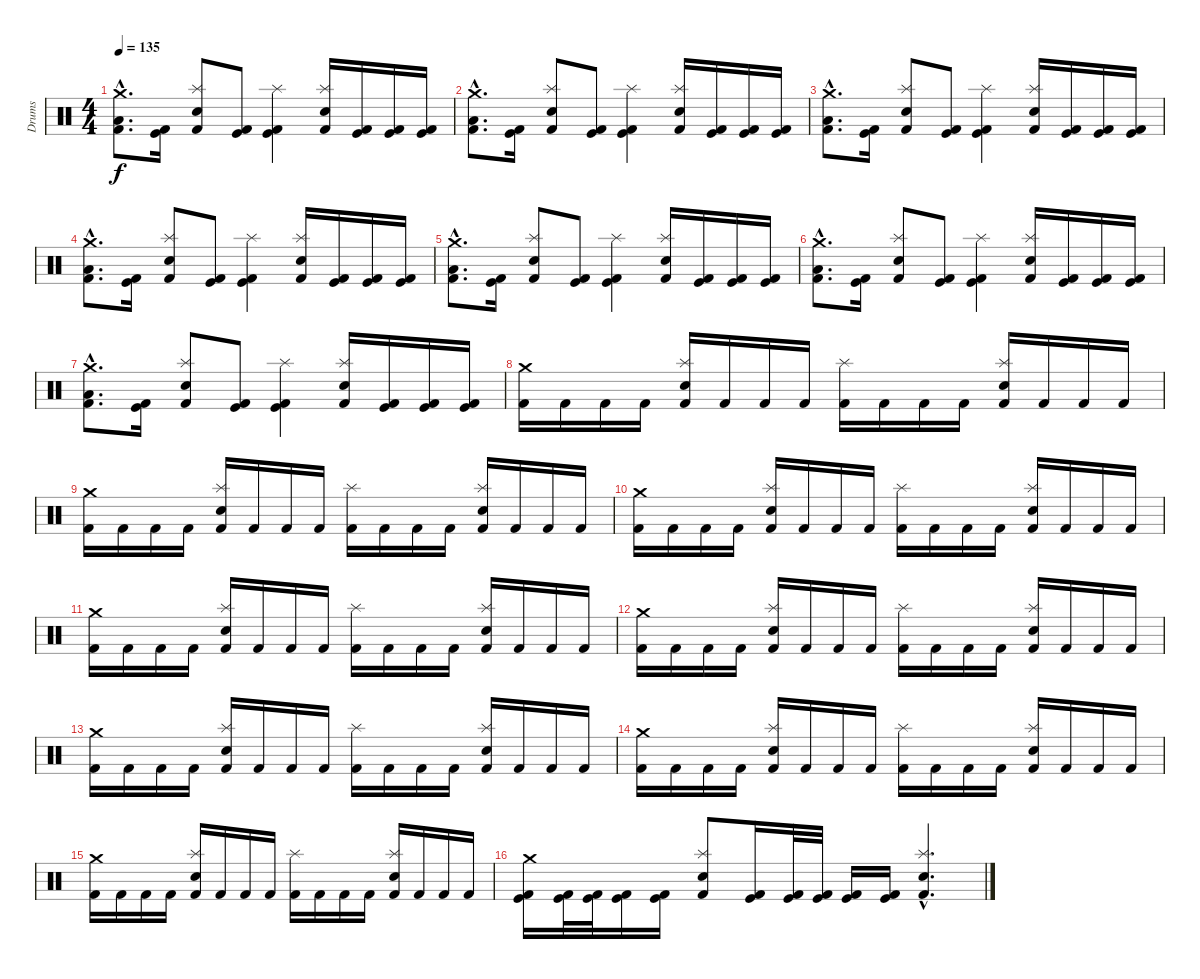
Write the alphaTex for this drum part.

\track ("Drums" "Drums") {instrument percussion}
\staff {score}
\articulation defaults
\ts (4 4)
\tempo 135
\clef neutral
\ks c
("Crash medium (hit)"{hac} "Low Floor Tom (hit)"{hac} "Kick (hit) 2"{hac}).8{d dy f} ("Kick (hit)" "Kick (hit) 2").16 ("Splash (hit)" "Snare (hit) 2" "Kick (hit) 2").8 ("Kick (hit)" "Kick (hit) 2").8 ("Splash (hit)" "Kick (hit)" "Kick (hit) 2").4 ("Splash (hit)" "Snare (hit) 2" "Kick (hit) 2").16 ("Kick (hit)" "Kick (hit) 2").16 ("Kick (hit)" "Kick (hit) 2").16 ("Kick (hit)" "Kick (hit) 2").16 |
("Crash medium (hit)"{hac} "Low Floor Tom (hit)"{hac} "Kick (hit) 2"{hac}).8{d} ("Kick (hit)" "Kick (hit) 2").16 ("Splash (hit)" "Snare (hit) 2" "Kick (hit) 2").8 ("Kick (hit)" "Kick (hit) 2").8 ("Splash (hit)" "Kick (hit)" "Kick (hit) 2").4 ("Splash (hit)" "Snare (hit) 2" "Kick (hit) 2").16 ("Kick (hit)" "Kick (hit) 2").16 ("Kick (hit)" "Kick (hit) 2").16 ("Kick (hit)" "Kick (hit) 2").16 |
("Crash medium (hit)"{hac} "Low Floor Tom (hit)"{hac} "Kick (hit) 2"{hac}).8{d} ("Kick (hit)" "Kick (hit) 2").16 ("Splash (hit)" "Snare (hit) 2" "Kick (hit) 2").8 ("Kick (hit)" "Kick (hit) 2").8 ("Splash (hit)" "Kick (hit)" "Kick (hit) 2").4 ("Splash (hit)" "Snare (hit) 2" "Kick (hit) 2").16 ("Kick (hit)" "Kick (hit) 2").16 ("Kick (hit)" "Kick (hit) 2").16 ("Kick (hit)" "Kick (hit) 2").16 |
("Crash medium (hit)"{hac} "Low Floor Tom (hit)"{hac} "Kick (hit) 2"{hac}).8{d} ("Kick (hit)" "Kick (hit) 2").16 ("Splash (hit)" "Snare (hit) 2" "Kick (hit) 2").8 ("Kick (hit)" "Kick (hit) 2").8 ("Splash (hit)" "Kick (hit)" "Kick (hit) 2").4 ("Splash (hit)" "Snare (hit) 2" "Kick (hit) 2").16 ("Kick (hit)" "Kick (hit) 2").16 ("Kick (hit)" "Kick (hit) 2").16 ("Kick (hit)" "Kick (hit) 2").16 |
("Crash medium (hit)"{hac} "Low Floor Tom (hit)"{hac} "Kick (hit) 2"{hac}).8{d} ("Kick (hit)" "Kick (hit) 2").16 ("Splash (hit)" "Snare (hit) 2" "Kick (hit) 2").8 ("Kick (hit)" "Kick (hit) 2").8 ("Splash (hit)" "Kick (hit)" "Kick (hit) 2").4 ("Splash (hit)" "Snare (hit) 2" "Kick (hit) 2").16 ("Kick (hit)" "Kick (hit) 2").16 ("Kick (hit)" "Kick (hit) 2").16 ("Kick (hit)" "Kick (hit) 2").16 |
("Crash medium (hit)"{hac} "Low Floor Tom (hit)"{hac} "Kick (hit) 2"{hac}).8{d} ("Kick (hit)" "Kick (hit) 2").16 ("Splash (hit)" "Snare (hit) 2" "Kick (hit) 2").8 ("Kick (hit)" "Kick (hit) 2").8 ("Splash (hit)" "Kick (hit)" "Kick (hit) 2").4 ("Splash (hit)" "Snare (hit) 2" "Kick (hit) 2").16 ("Kick (hit)" "Kick (hit) 2").16 ("Kick (hit)" "Kick (hit) 2").16 ("Kick (hit)" "Kick (hit) 2").16 |
("Crash medium (hit)"{hac} "Low Floor Tom (hit)"{hac} "Kick (hit) 2"{hac}).8{d} ("Kick (hit)" "Kick (hit) 2").16 ("Splash (hit)" "Snare (hit) 2" "Kick (hit) 2").8 ("Kick (hit)" "Kick (hit) 2").8 ("Splash (hit)" "Kick (hit)" "Kick (hit) 2").4 ("Splash (hit)" "Snare (hit) 2" "Kick (hit) 2").16 ("Kick (hit)" "Kick (hit) 2").16 ("Kick (hit)" "Kick (hit) 2").16 ("Kick (hit)" "Kick (hit) 2").16 |
("Crash medium (hit)" "Kick (hit) 2").16 "Kick (hit) 2".16 "Kick (hit) 2".16 "Kick (hit) 2".16 ("Splash (hit)" "Snare (hit) 2" "Kick (hit) 2").16 "Kick (hit) 2".16 "Kick (hit) 2".16 "Kick (hit) 2".16 ("Splash (hit)" "Kick (hit) 2").16 "Kick (hit) 2".16 "Kick (hit) 2".16 "Kick (hit) 2".16 ("Splash (hit)" "Snare (hit) 2" "Kick (hit) 2").16 "Kick (hit) 2".16 "Kick (hit) 2".16 "Kick (hit) 2".16 |
("Crash medium (hit)" "Kick (hit) 2").16 "Kick (hit) 2".16 "Kick (hit) 2".16 "Kick (hit) 2".16 ("Splash (hit)" "Snare (hit) 2" "Kick (hit) 2").16 "Kick (hit) 2".16 "Kick (hit) 2".16 "Kick (hit) 2".16 ("Splash (hit)" "Kick (hit) 2").16 "Kick (hit) 2".16 "Kick (hit) 2".16 "Kick (hit) 2".16 ("Splash (hit)" "Snare (hit) 2" "Kick (hit) 2").16 "Kick (hit) 2".16 "Kick (hit) 2".16 "Kick (hit) 2".16 |
("Crash medium (hit)" "Kick (hit) 2").16 "Kick (hit) 2".16 "Kick (hit) 2".16 "Kick (hit) 2".16 ("Splash (hit)" "Snare (hit) 2" "Kick (hit) 2").16 "Kick (hit) 2".16 "Kick (hit) 2".16 "Kick (hit) 2".16 ("Splash (hit)" "Kick (hit) 2").16 "Kick (hit) 2".16 "Kick (hit) 2".16 "Kick (hit) 2".16 ("Splash (hit)" "Snare (hit) 2" "Kick (hit) 2").16 "Kick (hit) 2".16 "Kick (hit) 2".16 "Kick (hit) 2".16 |
("Crash medium (hit)" "Kick (hit) 2").16 "Kick (hit) 2".16 "Kick (hit) 2".16 "Kick (hit) 2".16 ("Splash (hit)" "Snare (hit) 2" "Kick (hit) 2").16 "Kick (hit) 2".16 "Kick (hit) 2".16 "Kick (hit) 2".16 ("Splash (hit)" "Kick (hit) 2").16 "Kick (hit) 2".16 "Kick (hit) 2".16 "Kick (hit) 2".16 ("Splash (hit)" "Snare (hit) 2" "Kick (hit) 2").16 "Kick (hit) 2".16 "Kick (hit) 2".16 "Kick (hit) 2".16 |
("Crash medium (hit)" "Kick (hit) 2").16 "Kick (hit) 2".16 "Kick (hit) 2".16 "Kick (hit) 2".16 ("Splash (hit)" "Snare (hit) 2" "Kick (hit) 2").16 "Kick (hit) 2".16 "Kick (hit) 2".16 "Kick (hit) 2".16 ("Splash (hit)" "Kick (hit) 2").16 "Kick (hit) 2".16 "Kick (hit) 2".16 "Kick (hit) 2".16 ("Splash (hit)" "Snare (hit) 2" "Kick (hit) 2").16 "Kick (hit) 2".16 "Kick (hit) 2".16 "Kick (hit) 2".16 |
("Crash medium (hit)" "Kick (hit) 2").16 "Kick (hit) 2".16 "Kick (hit) 2".16 "Kick (hit) 2".16 ("Splash (hit)" "Snare (hit) 2" "Kick (hit) 2").16 "Kick (hit) 2".16 "Kick (hit) 2".16 "Kick (hit) 2".16 ("Splash (hit)" "Kick (hit) 2").16 "Kick (hit) 2".16 "Kick (hit) 2".16 "Kick (hit) 2".16 ("Splash (hit)" "Snare (hit) 2" "Kick (hit) 2").16 "Kick (hit) 2".16 "Kick (hit) 2".16 "Kick (hit) 2".16 |
("Crash medium (hit)" "Kick (hit) 2").16 "Kick (hit) 2".16 "Kick (hit) 2".16 "Kick (hit) 2".16 ("Splash (hit)" "Snare (hit) 2" "Kick (hit) 2").16 "Kick (hit) 2".16 "Kick (hit) 2".16 "Kick (hit) 2".16 ("Splash (hit)" "Kick (hit) 2").16 "Kick (hit) 2".16 "Kick (hit) 2".16 "Kick (hit) 2".16 ("Splash (hit)" "Snare (hit) 2" "Kick (hit) 2").16 "Kick (hit) 2".16 "Kick (hit) 2".16 "Kick (hit) 2".16 |
("Crash medium (hit)" "Kick (hit) 2").16 "Kick (hit) 2".16 "Kick (hit) 2".16 "Kick (hit) 2".16 ("Splash (hit)" "Snare (hit) 2" "Kick (hit) 2").16 "Kick (hit) 2".16 "Kick (hit) 2".16 "Kick (hit) 2".16 ("Splash (hit)" "Kick (hit) 2").16 "Kick (hit) 2".16 "Kick (hit) 2".16 "Kick (hit) 2".16 ("Splash (hit)" "Snare (hit) 2" "Kick (hit) 2").16 "Kick (hit) 2".16 "Kick (hit) 2".16 "Kick (hit) 2".16 |
("Crash medium (hit)" "Kick (hit)" "Kick (hit) 2").16 ("Kick (hit)" "Kick (hit) 2").32 ("Kick (hit)" "Kick (hit) 2").32 ("Kick (hit)" "Kick (hit) 2").16 ("Kick (hit)" "Kick (hit) 2").16 ("Splash (hit)" "Snare (hit) 2" "Kick (hit) 2").8 ("Kick (hit)" "Kick (hit) 2").16 ("Kick (hit)" "Kick (hit) 2").32 ("Kick (hit)" "Kick (hit) 2").32 ("Kick (hit)" "Kick (hit) 2").16 ("Kick (hit)" "Kick (hit) 2").16 ("Splash (hit)"{hac} "Snare (hit) 2"{hac} "Kick (hit) 2"{hac}).4{d}
